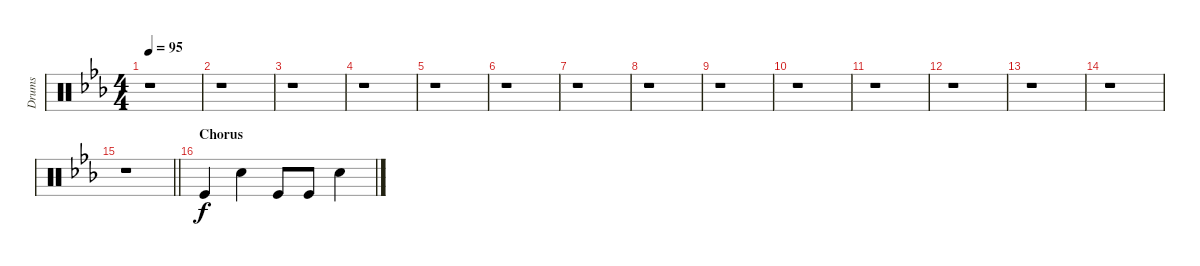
\track ("Drums" "Drums") {instrument percussion}
\staff {score}
\articulation defaults
\ts (4 4)
\tempo 95
\clef neutral
\ks cminor
r.1{dy f} |
r.1 |
r.1 |
r.1 |
r.1 |
r.1 |
r.1 |
r.1 |
r.1 |
r.1 |
r.1 |
r.1 |
r.1 |
r.1 |
\barLineRight lightlight
r.1 |
\section ("" "Chorus")
"Kick (hit)".4 "Snare (hit) 2".4 "Kick (hit)".8 "Kick (hit)".8 "Snare (hit) 2".4
